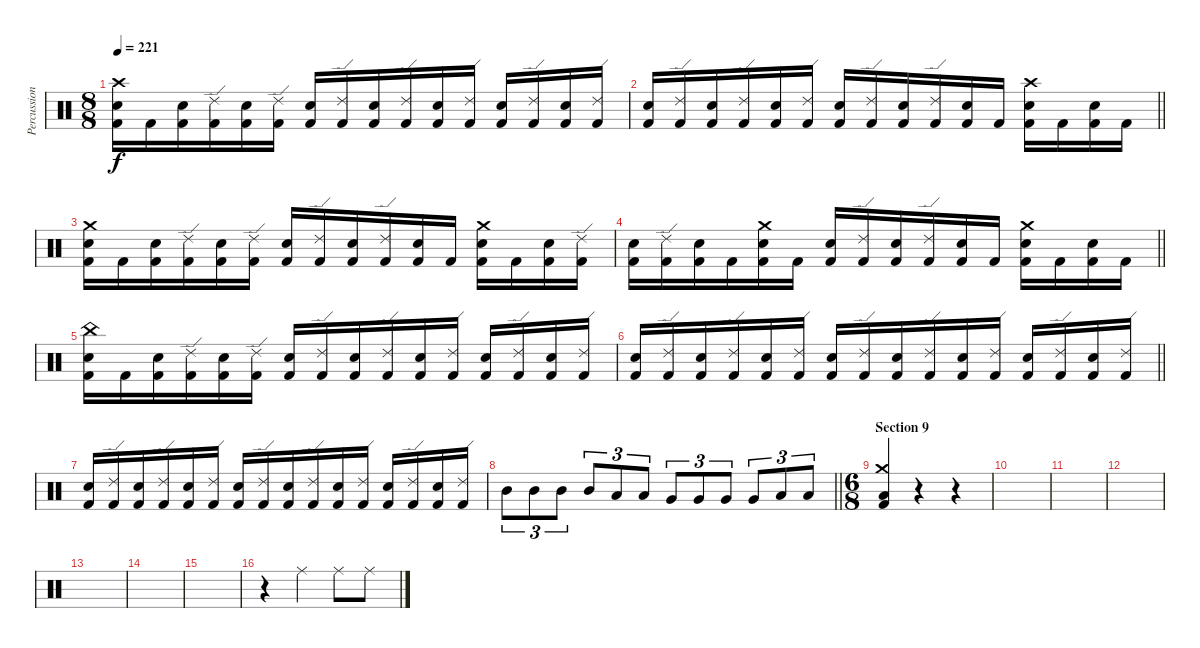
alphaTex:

\track ("Percussion" "Percussion") {instrument percussion}
\staff {score}
\articulation defaults
\ts (8 8)
\tempo 221
\clef neutral
\ks c
("Crash high (hit)" "Snare (hit) 2" "Kick (hit) 2").16{dy f} "Kick (hit) 2".16 ("Snare (hit) 2" "Kick (hit) 2").16 ("Ride (edge) 2" "Kick (hit) 2").16 ("Snare (hit) 2" "Kick (hit) 2").16 ("Ride (edge) 2" "Kick (hit) 2").16 ("Snare (hit) 2" "Kick (hit) 2").16 ("Ride (edge) 2" "Kick (hit) 2").16 ("Snare (hit) 2" "Kick (hit) 2").16 ("Ride (edge) 2" "Kick (hit) 2").16 ("Snare (hit) 2" "Kick (hit) 2").16 ("Ride (edge) 2" "Kick (hit) 2").16 ("Snare (hit) 2" "Kick (hit) 2").16 ("Ride (edge) 2" "Kick (hit) 2").16 ("Snare (hit) 2" "Kick (hit) 2").16 ("Ride (edge) 2" "Kick (hit) 2").16 |
\barLineRight lightlight
("Snare (hit) 2" "Kick (hit) 2").16 ("Ride (edge) 2" "Kick (hit) 2").16 ("Snare (hit) 2" "Kick (hit) 2").16 ("Ride (edge) 2" "Kick (hit) 2").16 ("Snare (hit) 2" "Kick (hit) 2").16 ("Ride (edge) 2" "Kick (hit) 2").16 ("Snare (hit) 2" "Kick (hit) 2").16 ("Ride (edge) 2" "Kick (hit) 2").16 ("Snare (hit) 2" "Kick (hit) 2").16 ("Ride (edge) 2" "Kick (hit) 2").16 ("Snare (hit) 2" "Kick (hit) 2").16 "Kick (hit) 2".16 ("Crash high (hit)" "Snare (hit) 2" "Kick (hit) 2").16 "Kick (hit) 2".16 ("Snare (hit) 2" "Kick (hit) 2").16 "Kick (hit) 2".16 |
("Crash medium (hit)" "Snare (hit) 2" "Kick (hit) 2").16 "Kick (hit) 2".16 ("Snare (hit) 2" "Kick (hit) 2").16 ("Ride (edge) 2" "Kick (hit) 2").16 ("Snare (hit) 2" "Kick (hit) 2").16 ("Ride (edge) 2" "Kick (hit) 2").16 ("Snare (hit) 2" "Kick (hit) 2").16 ("Ride (edge) 2" "Kick (hit) 2").16 ("Snare (hit) 2" "Kick (hit) 2").16 ("Ride (edge) 2" "Kick (hit) 2").16 ("Snare (hit) 2" "Kick (hit) 2").16 "Kick (hit) 2".16 ("Crash medium (hit)" "Snare (hit) 2" "Kick (hit) 2").16 "Kick (hit) 2".16 ("Snare (hit) 2" "Kick (hit) 2").16 ("Ride (edge) 2" "Kick (hit) 2").16 |
\barLineRight lightlight
("Snare (hit) 2" "Kick (hit) 2").16 ("Ride (edge) 2" "Kick (hit) 2").16 ("Snare (hit) 2" "Kick (hit) 2").16 "Kick (hit) 2".16 ("Crash medium (hit)" "Snare (hit) 2" "Kick (hit) 2").16 "Kick (hit) 2".16 ("Snare (hit) 2" "Kick (hit) 2").16 ("Ride (edge) 2" "Kick (hit) 2").16 ("Snare (hit) 2" "Kick (hit) 2").16 ("Ride (edge) 2" "Kick (hit) 2").16 ("Snare (hit) 2" "Kick (hit) 2").16 "Kick (hit) 2".16 ("Crash medium (hit)" "Snare (hit) 2" "Kick (hit) 2").16 "Kick (hit) 2".16 ("Snare (hit) 2" "Kick (hit) 2").16 "Kick (hit) 2".16 |
("China (hit)" "Snare (hit) 2" "Kick (hit) 2").16 "Kick (hit) 2".16 ("Snare (hit) 2" "Kick (hit) 2").16 ("Ride (edge) 2" "Kick (hit) 2").16 ("Snare (hit) 2" "Kick (hit) 2").16 ("Ride (edge) 2" "Kick (hit) 2").16 ("Snare (hit) 2" "Kick (hit) 2").16 ("Ride (edge) 2" "Kick (hit) 2").16 ("Snare (hit) 2" "Kick (hit) 2").16 ("Ride (edge) 2" "Kick (hit) 2").16 ("Snare (hit) 2" "Kick (hit) 2").16 ("Ride (edge) 2" "Kick (hit) 2").16 ("Snare (hit) 2" "Kick (hit) 2").16 ("Ride (edge) 2" "Kick (hit) 2").16 ("Snare (hit) 2" "Kick (hit) 2").16 ("Ride (edge) 2" "Kick (hit) 2").16 |
\barLineRight lightlight
("Snare (hit) 2" "Kick (hit) 2").16 ("Ride (edge) 2" "Kick (hit) 2").16 ("Snare (hit) 2" "Kick (hit) 2").16 ("Ride (edge) 2" "Kick (hit) 2").16 ("Snare (hit) 2" "Kick (hit) 2").16 ("Ride (edge) 2" "Kick (hit) 2").16 ("Snare (hit) 2" "Kick (hit) 2").16 ("Ride (edge) 2" "Kick (hit) 2").16 ("Snare (hit) 2" "Kick (hit) 2").16 ("Ride (edge) 2" "Kick (hit) 2").16 ("Snare (hit) 2" "Kick (hit) 2").16 ("Ride (edge) 2" "Kick (hit) 2").16 ("Snare (hit) 2" "Kick (hit) 2").16 ("Ride (edge) 2" "Kick (hit) 2").16 ("Snare (hit) 2" "Kick (hit) 2").16 ("Ride (edge) 2" "Kick (hit) 2").16 |
("Snare (hit) 2" "Kick (hit) 2").16 ("Ride (edge) 2" "Kick (hit) 2").16 ("Snare (hit) 2" "Kick (hit) 2").16 ("Ride (edge) 2" "Kick (hit) 2").16 ("Snare (hit) 2" "Kick (hit) 2").16 ("Ride (edge) 2" "Kick (hit) 2").16 ("Snare (hit) 2" "Kick (hit) 2").16 ("Ride (edge) 2" "Kick (hit) 2").16 ("Snare (hit) 2" "Kick (hit) 2").16 ("Ride (edge) 2" "Kick (hit) 2").16 ("Snare (hit) 2" "Kick (hit) 2").16 ("Ride (edge) 2" "Kick (hit) 2").16 ("Snare (hit) 2" "Kick (hit) 2").16 ("Ride (edge) 2" "Kick (hit) 2").16 ("Snare (hit) 2" "Kick (hit) 2").16 ("Ride (edge) 2" "Kick (hit) 2").16 |
\barLineRight lightlight "Mid Tom (hit)".8{tu (3 2)} "Mid Tom (hit)".8{tu (3 2)} "Mid Tom (hit)".8{tu (3 2)} "Mid Tom (hit)".8{tu (3 2)} "Low Tom (hit)".8{tu (3 2)} "Low Tom (hit)".8{tu (3 2)} "Very Low Tom (hit)".8{tu (3 2)} "Very Low Tom (hit)".8{tu (3 2)} "Very Low Tom (hit)".8{tu (3 2)} "Very Low Tom (hit)".8{tu (3 2)} "Low Floor Tom (hit)".8{tu (3 2)} "Low Floor Tom (hit)".8{tu (3 2)}
|
\ts (6 8)
\section ("" "Section 9")
("Crash medium (hit)" "Low Floor Tom (hit)" "Kick (hit) 2").4 r.4 r.4 |
|
|
|
|
|
|
r.4{volume 1} "Ride (middle)".4{volume 13} "Ride (middle)".8 "Ride (middle)".8
